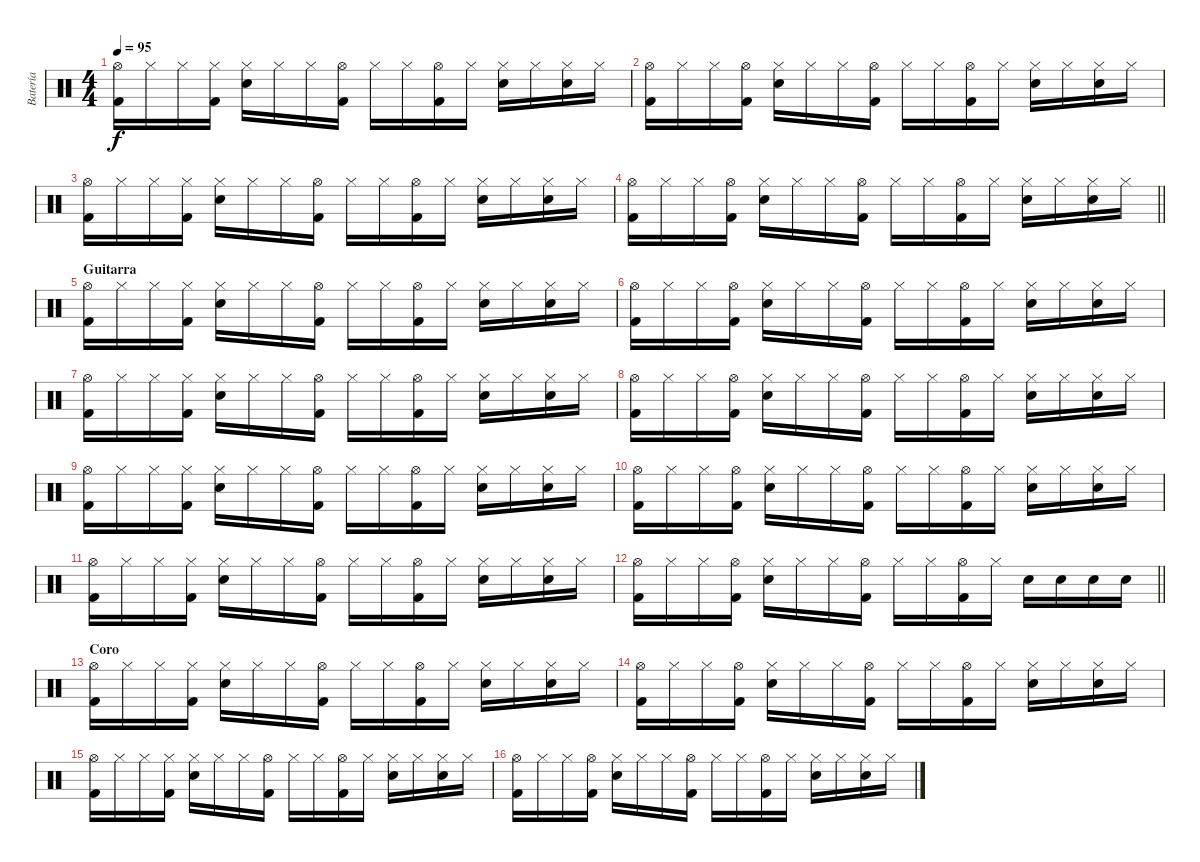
\track ("Batería" "Batería") {instrument percussion}
\staff {score}
\articulation defaults
\ts (4 4)
\tempo 95
\clef neutral
\ks c
("Hi-Hat (open)" "Kick (hit) 2").16{dy f} "Hi-Hat (closed)".16 "Hi-Hat (closed)".16 ("Hi-Hat (closed)" "Kick (hit) 2").16 ("Hi-Hat (closed)" "Electric Snare (hit)").16 "Hi-Hat (closed)".16 "Hi-Hat (closed)".16 ("Hi-Hat (open)" "Kick (hit) 2").16 "Hi-Hat (closed)".16 "Hi-Hat (closed)".16 ("Hi-Hat (open)" "Kick (hit) 2").16 "Hi-Hat (closed)".16 ("Hi-Hat (closed)" "Electric Snare (hit)").16 "Hi-Hat (closed)".16 ("Hi-Hat (closed)" "Electric Snare (hit)").16 "Hi-Hat (closed)".16 |
("Hi-Hat (open)" "Kick (hit) 2").16 "Hi-Hat (closed)".16 "Hi-Hat (closed)".16 ("Hi-Hat (open)" "Kick (hit) 2").16 ("Hi-Hat (closed)" "Electric Snare (hit)").16 "Hi-Hat (closed)".16 "Hi-Hat (closed)".16 ("Hi-Hat (open)" "Kick (hit) 2").16 "Hi-Hat (closed)".16 "Hi-Hat (closed)".16 ("Hi-Hat (open)" "Kick (hit) 2").16 "Hi-Hat (closed)".16 ("Hi-Hat (closed)" "Electric Snare (hit)").16 "Hi-Hat (closed)".16 ("Hi-Hat (closed)" "Electric Snare (hit)").16 "Hi-Hat (closed)".16 |
("Hi-Hat (open)" "Kick (hit) 2").16 "Hi-Hat (closed)".16 "Hi-Hat (closed)".16 ("Hi-Hat (closed)" "Kick (hit) 2").16 ("Hi-Hat (closed)" "Electric Snare (hit)").16 "Hi-Hat (closed)".16 "Hi-Hat (closed)".16 ("Hi-Hat (open)" "Kick (hit) 2").16 "Hi-Hat (closed)".16 "Hi-Hat (closed)".16 ("Hi-Hat (open)" "Kick (hit) 2").16 "Hi-Hat (closed)".16 ("Hi-Hat (closed)" "Electric Snare (hit)").16 "Hi-Hat (closed)".16 ("Hi-Hat (closed)" "Electric Snare (hit)").16 "Hi-Hat (closed)".16 |
\barLineRight lightlight
("Hi-Hat (open)" "Kick (hit) 2").16 "Hi-Hat (closed)".16 "Hi-Hat (closed)".16 ("Hi-Hat (open)" "Kick (hit) 2").16 ("Hi-Hat (closed)" "Electric Snare (hit)").16 "Hi-Hat (closed)".16 "Hi-Hat (closed)".16 ("Hi-Hat (open)" "Kick (hit) 2").16 "Hi-Hat (closed)".16 "Hi-Hat (closed)".16 ("Hi-Hat (open)" "Kick (hit) 2").16 "Hi-Hat (closed)".16 ("Hi-Hat (closed)" "Electric Snare (hit)").16 "Hi-Hat (closed)".16 ("Hi-Hat (closed)" "Electric Snare (hit)").16 "Hi-Hat (closed)".16 |
\section ("" "Guitarra")
("Hi-Hat (open)" "Kick (hit) 2").16 "Hi-Hat (closed)".16 "Hi-Hat (closed)".16 ("Hi-Hat (closed)" "Kick (hit) 2").16 ("Hi-Hat (closed)" "Electric Snare (hit)").16 "Hi-Hat (closed)".16 "Hi-Hat (closed)".16 ("Hi-Hat (open)" "Kick (hit) 2").16 "Hi-Hat (closed)".16 "Hi-Hat (closed)".16 ("Hi-Hat (open)" "Kick (hit) 2").16 "Hi-Hat (closed)".16 ("Hi-Hat (closed)" "Electric Snare (hit)").16 "Hi-Hat (closed)".16 ("Hi-Hat (closed)" "Electric Snare (hit)").16 "Hi-Hat (closed)".16 |
("Hi-Hat (open)" "Kick (hit) 2").16 "Hi-Hat (closed)".16 "Hi-Hat (closed)".16 ("Hi-Hat (open)" "Kick (hit) 2").16 ("Hi-Hat (closed)" "Electric Snare (hit)").16 "Hi-Hat (closed)".16 "Hi-Hat (closed)".16 ("Hi-Hat (open)" "Kick (hit) 2").16 "Hi-Hat (closed)".16 "Hi-Hat (closed)".16 ("Hi-Hat (open)" "Kick (hit) 2").16 "Hi-Hat (closed)".16 ("Hi-Hat (closed)" "Electric Snare (hit)").16 "Hi-Hat (closed)".16 ("Hi-Hat (closed)" "Electric Snare (hit)").16 "Hi-Hat (closed)".16 |
("Hi-Hat (open)" "Kick (hit) 2").16 "Hi-Hat (closed)".16 "Hi-Hat (closed)".16 ("Hi-Hat (closed)" "Kick (hit) 2").16 ("Hi-Hat (closed)" "Electric Snare (hit)").16 "Hi-Hat (closed)".16 "Hi-Hat (closed)".16 ("Hi-Hat (open)" "Kick (hit) 2").16 "Hi-Hat (closed)".16 "Hi-Hat (closed)".16 ("Hi-Hat (open)" "Kick (hit) 2").16 "Hi-Hat (closed)".16 ("Hi-Hat (closed)" "Electric Snare (hit)").16 "Hi-Hat (closed)".16 ("Hi-Hat (closed)" "Electric Snare (hit)").16 "Hi-Hat (closed)".16 |
("Hi-Hat (open)" "Kick (hit) 2").16 "Hi-Hat (closed)".16 "Hi-Hat (closed)".16 ("Hi-Hat (open)" "Kick (hit) 2").16 ("Hi-Hat (closed)" "Electric Snare (hit)").16 "Hi-Hat (closed)".16 "Hi-Hat (closed)".16 ("Hi-Hat (open)" "Kick (hit) 2").16 "Hi-Hat (closed)".16 "Hi-Hat (closed)".16 ("Hi-Hat (open)" "Kick (hit) 2").16 "Hi-Hat (closed)".16 ("Hi-Hat (closed)" "Electric Snare (hit)").16 "Hi-Hat (closed)".16 ("Hi-Hat (closed)" "Electric Snare (hit)").16 "Hi-Hat (closed)".16 |
("Hi-Hat (open)" "Kick (hit) 2").16 "Hi-Hat (closed)".16 "Hi-Hat (closed)".16 ("Hi-Hat (closed)" "Kick (hit) 2").16 ("Hi-Hat (closed)" "Electric Snare (hit)").16 "Hi-Hat (closed)".16 "Hi-Hat (closed)".16 ("Hi-Hat (open)" "Kick (hit) 2").16 "Hi-Hat (closed)".16 "Hi-Hat (closed)".16 ("Hi-Hat (open)" "Kick (hit) 2").16 "Hi-Hat (closed)".16 ("Hi-Hat (closed)" "Electric Snare (hit)").16 "Hi-Hat (closed)".16 ("Hi-Hat (closed)" "Electric Snare (hit)").16 "Hi-Hat (closed)".16 |
("Hi-Hat (open)" "Kick (hit) 2").16 "Hi-Hat (closed)".16 "Hi-Hat (closed)".16 ("Hi-Hat (open)" "Kick (hit) 2").16 ("Hi-Hat (closed)" "Electric Snare (hit)").16 "Hi-Hat (closed)".16 "Hi-Hat (closed)".16 ("Hi-Hat (open)" "Kick (hit) 2").16 "Hi-Hat (closed)".16 "Hi-Hat (closed)".16 ("Hi-Hat (open)" "Kick (hit) 2").16 "Hi-Hat (closed)".16 ("Hi-Hat (closed)" "Electric Snare (hit)").16 "Hi-Hat (closed)".16 ("Hi-Hat (closed)" "Electric Snare (hit)").16 "Hi-Hat (closed)".16 |
("Hi-Hat (open)" "Kick (hit) 2").16 "Hi-Hat (closed)".16 "Hi-Hat (closed)".16 ("Hi-Hat (closed)" "Kick (hit) 2").16 ("Hi-Hat (closed)" "Electric Snare (hit)").16 "Hi-Hat (closed)".16 "Hi-Hat (closed)".16 ("Hi-Hat (open)" "Kick (hit) 2").16 "Hi-Hat (closed)".16 "Hi-Hat (closed)".16 ("Hi-Hat (open)" "Kick (hit) 2").16 "Hi-Hat (closed)".16 ("Hi-Hat (closed)" "Electric Snare (hit)").16 "Hi-Hat (closed)".16 ("Hi-Hat (closed)" "Electric Snare (hit)").16 "Hi-Hat (closed)".16 |
\barLineRight lightlight
("Hi-Hat (open)" "Kick (hit) 2").16 "Hi-Hat (closed)".16 "Hi-Hat (closed)".16 ("Hi-Hat (open)" "Kick (hit) 2").16 ("Hi-Hat (closed)" "Electric Snare (hit)").16 "Hi-Hat (closed)".16 "Hi-Hat (closed)".16 ("Hi-Hat (open)" "Kick (hit) 2").16 "Hi-Hat (closed)".16 "Hi-Hat (closed)".16 ("Hi-Hat (open)" "Kick (hit) 2").16 "Hi-Hat (closed)".16 "Electric Snare (hit)".16 "Electric Snare (hit)".16 "Electric Snare (hit)".16 "Electric Snare (hit)".16 |
\section ("" "Coro")
("Hi-Hat (open)" "Kick (hit) 2").16 "Hi-Hat (closed)".16 "Hi-Hat (closed)".16 ("Hi-Hat (closed)" "Kick (hit) 2").16 ("Hi-Hat (closed)" "Electric Snare (hit)").16 "Hi-Hat (closed)".16 "Hi-Hat (closed)".16 ("Hi-Hat (open)" "Kick (hit) 2").16 "Hi-Hat (closed)".16 "Hi-Hat (closed)".16 ("Hi-Hat (open)" "Kick (hit) 2").16 "Hi-Hat (closed)".16 ("Hi-Hat (closed)" "Electric Snare (hit)").16 "Hi-Hat (closed)".16 ("Hi-Hat (closed)" "Electric Snare (hit)").16 "Hi-Hat (closed)".16 |
("Hi-Hat (open)" "Kick (hit) 2").16 "Hi-Hat (closed)".16 "Hi-Hat (closed)".16 ("Hi-Hat (open)" "Kick (hit) 2").16 ("Hi-Hat (closed)" "Electric Snare (hit)").16 "Hi-Hat (closed)".16 "Hi-Hat (closed)".16 ("Hi-Hat (open)" "Kick (hit) 2").16 "Hi-Hat (closed)".16 "Hi-Hat (closed)".16 ("Hi-Hat (open)" "Kick (hit) 2").16 "Hi-Hat (closed)".16 ("Hi-Hat (closed)" "Electric Snare (hit)").16 "Hi-Hat (closed)".16 ("Hi-Hat (closed)" "Electric Snare (hit)").16 "Hi-Hat (closed)".16 |
("Hi-Hat (open)" "Kick (hit) 2").16 "Hi-Hat (closed)".16 "Hi-Hat (closed)".16 ("Hi-Hat (closed)" "Kick (hit) 2").16 ("Hi-Hat (closed)" "Electric Snare (hit)").16 "Hi-Hat (closed)".16 "Hi-Hat (closed)".16 ("Hi-Hat (open)" "Kick (hit) 2").16 "Hi-Hat (closed)".16 "Hi-Hat (closed)".16 ("Hi-Hat (open)" "Kick (hit) 2").16 "Hi-Hat (closed)".16 ("Hi-Hat (closed)" "Electric Snare (hit)").16 "Hi-Hat (closed)".16 ("Hi-Hat (closed)" "Electric Snare (hit)").16 "Hi-Hat (closed)".16 |
("Hi-Hat (open)" "Kick (hit) 2").16 "Hi-Hat (closed)".16 "Hi-Hat (closed)".16 ("Hi-Hat (open)" "Kick (hit) 2").16 ("Hi-Hat (closed)" "Electric Snare (hit)").16 "Hi-Hat (closed)".16 "Hi-Hat (closed)".16 ("Hi-Hat (open)" "Kick (hit) 2").16 "Hi-Hat (closed)".16 "Hi-Hat (closed)".16 ("Hi-Hat (open)" "Kick (hit) 2").16 "Hi-Hat (closed)".16 ("Hi-Hat (closed)" "Electric Snare (hit)").16 "Hi-Hat (closed)".16 ("Hi-Hat (closed)" "Electric Snare (hit)").16 "Hi-Hat (closed)".16
